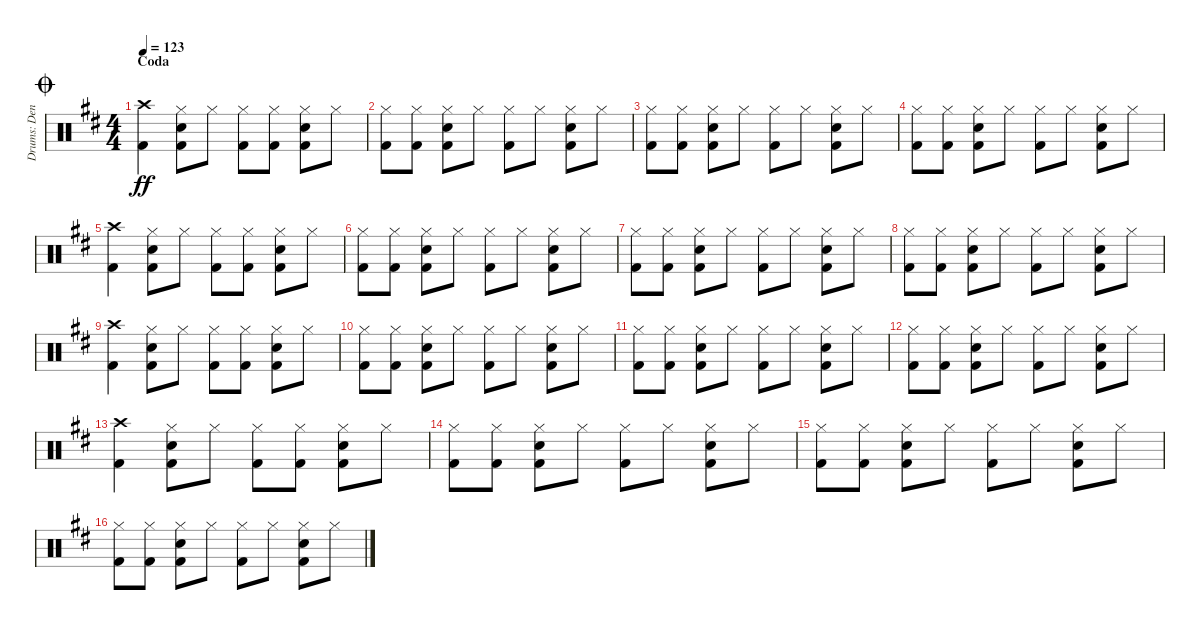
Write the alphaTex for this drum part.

\track ("Drums: Denny" "Drums: Den") {instrument percussion}
\staff {score}
\articulation defaults
\ts (4 4)
\section ("" "Coda")
\jump coda
\tempo 123
\clef neutral
\ks d
("Crash high (hit)" "Kick (hit) 2").4{dy ff} ("Hi-Hat (closed)" "Snare (hit) 2" "Kick (hit) 2").8 "Hi-Hat (closed)".8 ("Hi-Hat (closed)" "Kick (hit) 2").8 ("Hi-Hat (closed)" "Kick (hit) 2").8 ("Hi-Hat (closed)" "Snare (hit) 2" "Kick (hit) 2").8 "Hi-Hat (closed)".8 |
("Hi-Hat (closed)" "Kick (hit) 2").8 ("Hi-Hat (closed)" "Kick (hit) 2").8 ("Hi-Hat (closed)" "Snare (hit) 2" "Kick (hit) 2").8 "Hi-Hat (closed)".8 ("Hi-Hat (closed)" "Kick (hit) 2").8 "Hi-Hat (closed)".8 ("Hi-Hat (closed)" "Snare (hit) 2" "Kick (hit) 2").8 "Hi-Hat (closed)".8 |
("Hi-Hat (closed)" "Kick (hit) 2").8 ("Hi-Hat (closed)" "Kick (hit) 2").8 ("Hi-Hat (closed)" "Snare (hit) 2" "Kick (hit) 2").8 "Hi-Hat (closed)".8 ("Hi-Hat (closed)" "Kick (hit) 2").8 "Hi-Hat (closed)".8 ("Hi-Hat (closed)" "Snare (hit) 2" "Kick (hit) 2").8 "Hi-Hat (closed)".8 |
("Hi-Hat (closed)" "Kick (hit) 2").8 ("Hi-Hat (closed)" "Kick (hit) 2").8 ("Hi-Hat (closed)" "Snare (hit) 2" "Kick (hit) 2").8 "Hi-Hat (closed)".8 ("Hi-Hat (closed)" "Kick (hit) 2").8 "Hi-Hat (closed)".8 ("Hi-Hat (closed)" "Snare (hit) 2" "Kick (hit) 2").8 "Hi-Hat (closed)".8 |
("Crash high (hit)" "Kick (hit) 2").4 ("Hi-Hat (closed)" "Snare (hit) 2" "Kick (hit) 2").8 "Hi-Hat (closed)".8 ("Hi-Hat (closed)" "Kick (hit) 2").8 ("Hi-Hat (closed)" "Kick (hit) 2").8 ("Hi-Hat (closed)" "Snare (hit) 2" "Kick (hit) 2").8 "Hi-Hat (closed)".8 |
("Hi-Hat (closed)" "Kick (hit) 2").8 ("Hi-Hat (closed)" "Kick (hit) 2").8 ("Hi-Hat (closed)" "Snare (hit) 2" "Kick (hit) 2").8 "Hi-Hat (closed)".8 ("Hi-Hat (closed)" "Kick (hit) 2").8 "Hi-Hat (closed)".8 ("Hi-Hat (closed)" "Snare (hit) 2" "Kick (hit) 2").8 "Hi-Hat (closed)".8 |
("Hi-Hat (closed)" "Kick (hit) 2").8 ("Hi-Hat (closed)" "Kick (hit) 2").8 ("Hi-Hat (closed)" "Snare (hit) 2" "Kick (hit) 2").8 "Hi-Hat (closed)".8 ("Hi-Hat (closed)" "Kick (hit) 2").8 "Hi-Hat (closed)".8 ("Hi-Hat (closed)" "Snare (hit) 2" "Kick (hit) 2").8 "Hi-Hat (closed)".8 |
("Hi-Hat (closed)" "Kick (hit) 2").8 ("Hi-Hat (closed)" "Kick (hit) 2").8 ("Hi-Hat (closed)" "Snare (hit) 2" "Kick (hit) 2").8 "Hi-Hat (closed)".8 ("Hi-Hat (closed)" "Kick (hit) 2").8 "Hi-Hat (closed)".8 ("Hi-Hat (closed)" "Snare (hit) 2" "Kick (hit) 2").8 "Hi-Hat (closed)".8 |
("Crash high (hit)" "Kick (hit) 2").4 ("Hi-Hat (closed)" "Snare (hit) 2" "Kick (hit) 2").8 "Hi-Hat (closed)".8 ("Hi-Hat (closed)" "Kick (hit) 2").8 ("Hi-Hat (closed)" "Kick (hit) 2").8 ("Hi-Hat (closed)" "Snare (hit) 2" "Kick (hit) 2").8 "Hi-Hat (closed)".8 |
("Hi-Hat (closed)" "Kick (hit) 2").8 ("Hi-Hat (closed)" "Kick (hit) 2").8 ("Hi-Hat (closed)" "Snare (hit) 2" "Kick (hit) 2").8 "Hi-Hat (closed)".8 ("Hi-Hat (closed)" "Kick (hit) 2").8 "Hi-Hat (closed)".8 ("Hi-Hat (closed)" "Snare (hit) 2" "Kick (hit) 2").8 "Hi-Hat (closed)".8 |
("Hi-Hat (closed)" "Kick (hit) 2").8 ("Hi-Hat (closed)" "Kick (hit) 2").8 ("Hi-Hat (closed)" "Snare (hit) 2" "Kick (hit) 2").8 "Hi-Hat (closed)".8 ("Hi-Hat (closed)" "Kick (hit) 2").8 "Hi-Hat (closed)".8 ("Hi-Hat (closed)" "Snare (hit) 2" "Kick (hit) 2").8 "Hi-Hat (closed)".8 |
("Hi-Hat (closed)" "Kick (hit) 2").8 ("Hi-Hat (closed)" "Kick (hit) 2").8 ("Hi-Hat (closed)" "Snare (hit) 2" "Kick (hit) 2").8 "Hi-Hat (closed)".8 ("Hi-Hat (closed)" "Kick (hit) 2").8 "Hi-Hat (closed)".8 ("Hi-Hat (closed)" "Snare (hit) 2" "Kick (hit) 2").8 "Hi-Hat (closed)".8 |
("Crash high (hit)" "Kick (hit) 2").4 ("Hi-Hat (closed)" "Snare (hit) 2" "Kick (hit) 2").8 "Hi-Hat (closed)".8 ("Hi-Hat (closed)" "Kick (hit) 2").8 ("Hi-Hat (closed)" "Kick (hit) 2").8 ("Hi-Hat (closed)" "Snare (hit) 2" "Kick (hit) 2").8 "Hi-Hat (closed)".8 |
("Hi-Hat (closed)" "Kick (hit) 2").8 ("Hi-Hat (closed)" "Kick (hit) 2").8 ("Hi-Hat (closed)" "Snare (hit) 2" "Kick (hit) 2").8 "Hi-Hat (closed)".8 ("Hi-Hat (closed)" "Kick (hit) 2").8 "Hi-Hat (closed)".8 ("Hi-Hat (closed)" "Snare (hit) 2" "Kick (hit) 2").8 "Hi-Hat (closed)".8 |
("Hi-Hat (closed)" "Kick (hit) 2").8 ("Hi-Hat (closed)" "Kick (hit) 2").8 ("Hi-Hat (closed)" "Snare (hit) 2" "Kick (hit) 2").8 "Hi-Hat (closed)".8 ("Hi-Hat (closed)" "Kick (hit) 2").8 "Hi-Hat (closed)".8 ("Hi-Hat (closed)" "Snare (hit) 2" "Kick (hit) 2").8 "Hi-Hat (closed)".8 |
("Hi-Hat (closed)" "Kick (hit) 2").8 ("Hi-Hat (closed)" "Kick (hit) 2").8 ("Hi-Hat (closed)" "Snare (hit) 2" "Kick (hit) 2").8 "Hi-Hat (closed)".8 ("Hi-Hat (closed)" "Kick (hit) 2").8 "Hi-Hat (closed)".8 ("Hi-Hat (closed)" "Snare (hit) 2" "Kick (hit) 2").8 "Hi-Hat (closed)".8
